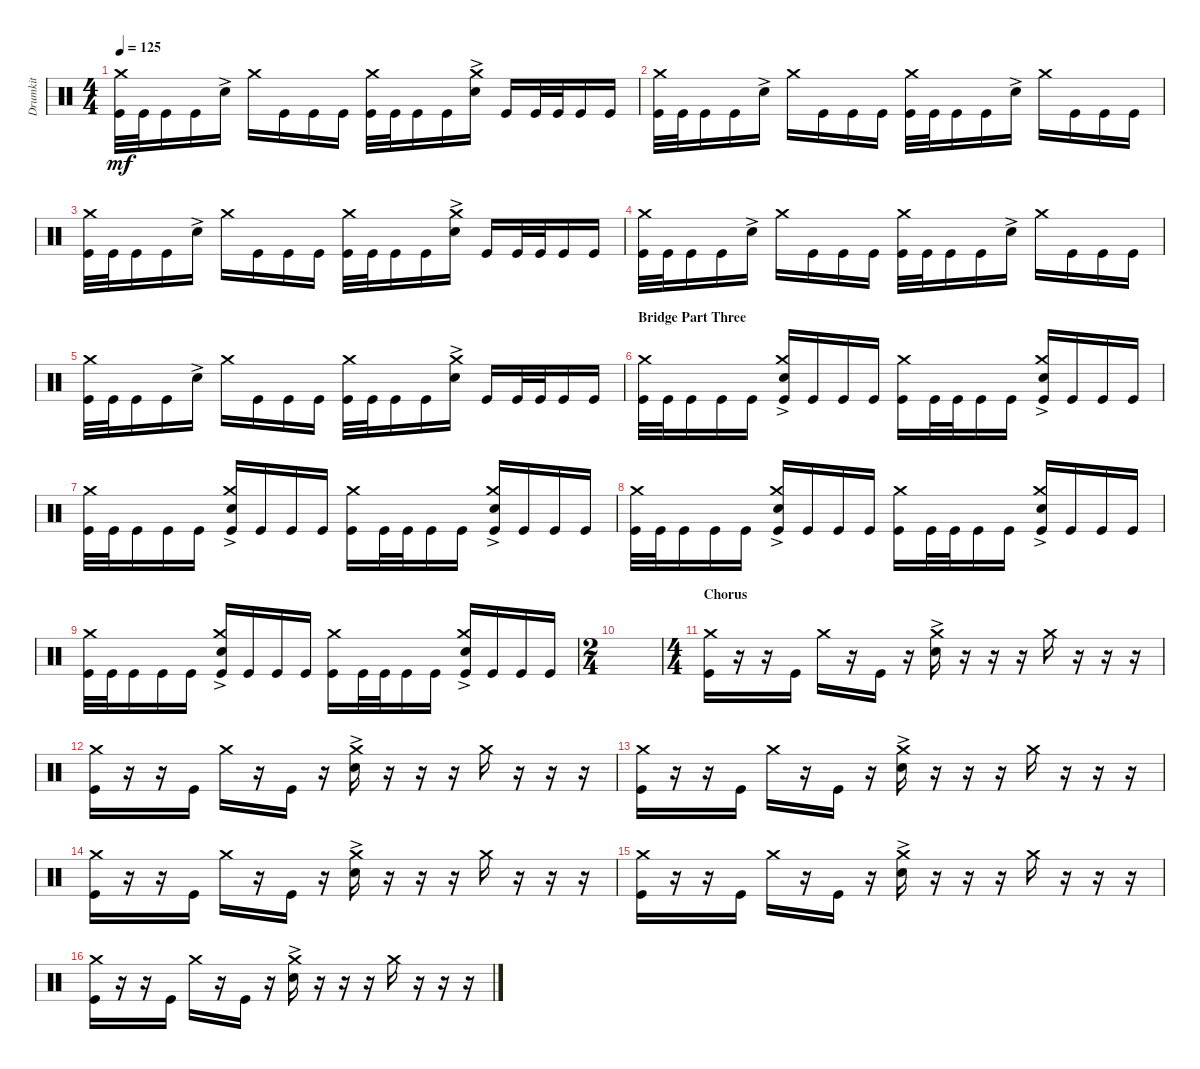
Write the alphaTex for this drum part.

\track ("Drumkit" "Drumkit") {instrument percussion}
\staff {score}
\articulation defaults
\ts (4 4)
\tempo 125
\clef neutral
\ks c
("Kick (hit)" "Crash medium (hit)").32{dy mf} "Kick (hit)".32 "Kick (hit)".16 "Kick (hit)".16 "Snare (hit) 2"{ac}.16 "Crash medium (hit)".16 "Kick (hit)".16 "Kick (hit)".16 "Kick (hit)".16 ("Kick (hit)" "Crash medium (hit)").32 "Kick (hit)".32 "Kick (hit)".16 "Kick (hit)".16 ("Crash medium (hit)" "Snare (hit) 2"{ac}).16 "Kick (hit)".16 "Kick (hit)".32 "Kick (hit)".32 "Kick (hit)".16 "Kick (hit)".16 |
("Kick (hit)" "Crash medium (hit)").32 "Kick (hit)".32 "Kick (hit)".16 "Kick (hit)".16 "Snare (hit) 2"{ac}.16 "Crash medium (hit)".16 "Kick (hit)".16 "Kick (hit)".16 "Kick (hit)".16 ("Kick (hit)" "Crash medium (hit)").32 "Kick (hit)".32 "Kick (hit)".16 "Kick (hit)".16 "Snare (hit) 2"{ac}.16 "Crash medium (hit)".16 "Kick (hit)".16 "Kick (hit)".16 "Kick (hit)".16 |
("Kick (hit)" "Crash medium (hit)").32 "Kick (hit)".32 "Kick (hit)".16 "Kick (hit)".16 "Snare (hit) 2"{ac}.16 "Crash medium (hit)".16 "Kick (hit)".16 "Kick (hit)".16 "Kick (hit)".16 ("Kick (hit)" "Crash medium (hit)").32 "Kick (hit)".32 "Kick (hit)".16 "Kick (hit)".16 ("Crash medium (hit)" "Snare (hit) 2"{ac}).16 "Kick (hit)".16 "Kick (hit)".32 "Kick (hit)".32 "Kick (hit)".16 "Kick (hit)".16 |
("Kick (hit)" "Crash medium (hit)").32 "Kick (hit)".32 "Kick (hit)".16 "Kick (hit)".16 "Snare (hit) 2"{ac}.16 "Crash medium (hit)".16 "Kick (hit)".16 "Kick (hit)".16 "Kick (hit)".16 ("Kick (hit)" "Crash medium (hit)").32 "Kick (hit)".32 "Kick (hit)".16 "Kick (hit)".16 "Snare (hit) 2"{ac}.16 "Crash medium (hit)".16 "Kick (hit)".16 "Kick (hit)".16 "Kick (hit)".16 |
("Kick (hit)" "Crash medium (hit)").32 "Kick (hit)".32 "Kick (hit)".16 "Kick (hit)".16 "Snare (hit) 2"{ac}.16 "Crash medium (hit)".16 "Kick (hit)".16 "Kick (hit)".16 "Kick (hit)".16 ("Kick (hit)" "Crash medium (hit)").32 "Kick (hit)".32 "Kick (hit)".16 "Kick (hit)".16 ("Crash medium (hit)" "Snare (hit) 2"{ac}).16 "Kick (hit)".16 "Kick (hit)".32 "Kick (hit)".32 "Kick (hit)".16 "Kick (hit)".16 |
\section ("" "Bridge Part Three")
("Kick (hit)" "Crash medium (hit)").32 "Kick (hit)".32 "Kick (hit)".16 "Kick (hit)".16 "Kick (hit)".16 ("Kick (hit)" "Snare (hit) 2"{ac} "Crash medium (hit)").16 "Kick (hit)".16 "Kick (hit)".16 "Kick (hit)".16 ("Kick (hit)" "Crash medium (hit)").16 "Kick (hit)".32 "Kick (hit)".32 "Kick (hit)".16 "Kick (hit)".16 ("Kick (hit)" "Snare (hit) 2"{ac} "Crash medium (hit)").16 "Kick (hit)".16 "Kick (hit)".16 "Kick (hit)".16 |
("Kick (hit)" "Crash medium (hit)").32 "Kick (hit)".32 "Kick (hit)".16 "Kick (hit)".16 "Kick (hit)".16 ("Kick (hit)" "Snare (hit) 2"{ac} "Crash medium (hit)").16 "Kick (hit)".16 "Kick (hit)".16 "Kick (hit)".16 ("Kick (hit)" "Crash medium (hit)").16 "Kick (hit)".32 "Kick (hit)".32 "Kick (hit)".16 "Kick (hit)".16 ("Kick (hit)" "Snare (hit) 2"{ac} "Crash medium (hit)").16 "Kick (hit)".16 "Kick (hit)".16 "Kick (hit)".16 |
("Kick (hit)" "Crash medium (hit)").32 "Kick (hit)".32 "Kick (hit)".16 "Kick (hit)".16 "Kick (hit)".16 ("Kick (hit)" "Snare (hit) 2"{ac} "Crash medium (hit)").16 "Kick (hit)".16 "Kick (hit)".16 "Kick (hit)".16 ("Kick (hit)" "Crash medium (hit)").16 "Kick (hit)".32 "Kick (hit)".32 "Kick (hit)".16 "Kick (hit)".16 ("Kick (hit)" "Snare (hit) 2"{ac} "Crash medium (hit)").16 "Kick (hit)".16 "Kick (hit)".16 "Kick (hit)".16 |
("Kick (hit)" "Crash medium (hit)").32 "Kick (hit)".32 "Kick (hit)".16 "Kick (hit)".16 "Kick (hit)".16 ("Kick (hit)" "Snare (hit) 2"{ac} "Crash medium (hit)").16 "Kick (hit)".16 "Kick (hit)".16 "Kick (hit)".16 ("Kick (hit)" "Crash medium (hit)").16 "Kick (hit)".32 "Kick (hit)".32 "Kick (hit)".16 "Kick (hit)".16 ("Kick (hit)" "Snare (hit) 2"{ac} "Crash medium (hit)").16 "Kick (hit)".16 "Kick (hit)".16 "Kick (hit)".16 |
\ts (2 4)
|
\ts (4 4)
\section ("" "Chorus")
("Crash medium (hit)" "Kick (hit)").16 r.16 r.16 "Kick (hit)".16 "Crash medium (hit)".16 r.16 "Kick (hit)".16 r.16 ("Crash medium (hit)" "Snare (hit) 2"{ac}).16 r.16 r.16 r.16 "Crash medium (hit)".16 r.16 r.16 r.16 |
("Crash medium (hit)" "Kick (hit)").16 r.16 r.16 "Kick (hit)".16 "Crash medium (hit)".16 r.16 "Kick (hit)".16 r.16 ("Crash medium (hit)" "Snare (hit) 2"{ac}).16 r.16 r.16 r.16 "Crash medium (hit)".16 r.16 r.16 r.16 |
("Crash medium (hit)" "Kick (hit)").16 r.16 r.16 "Kick (hit)".16 "Crash medium (hit)".16 r.16 "Kick (hit)".16 r.16 ("Crash medium (hit)" "Snare (hit) 2"{ac}).16 r.16 r.16 r.16 "Crash medium (hit)".16 r.16 r.16 r.16 |
("Crash medium (hit)" "Kick (hit)").16 r.16 r.16 "Kick (hit)".16 "Crash medium (hit)".16 r.16 "Kick (hit)".16 r.16 ("Crash medium (hit)" "Snare (hit) 2"{ac}).16 r.16 r.16 r.16 "Crash medium (hit)".16 r.16 r.16 r.16 |
("Crash medium (hit)" "Kick (hit)").16 r.16 r.16 "Kick (hit)".16 "Crash medium (hit)".16 r.16 "Kick (hit)".16 r.16 ("Crash medium (hit)" "Snare (hit) 2"{ac}).16 r.16 r.16 r.16 "Crash medium (hit)".16 r.16 r.16 r.16 |
("Crash medium (hit)" "Kick (hit)").16 r.16 r.16 "Kick (hit)".16 "Crash medium (hit)".16 r.16 "Kick (hit)".16 r.16 ("Crash medium (hit)" "Snare (hit) 2"{ac}).16 r.16 r.16 r.16 "Crash medium (hit)".16 r.16 r.16 r.16
